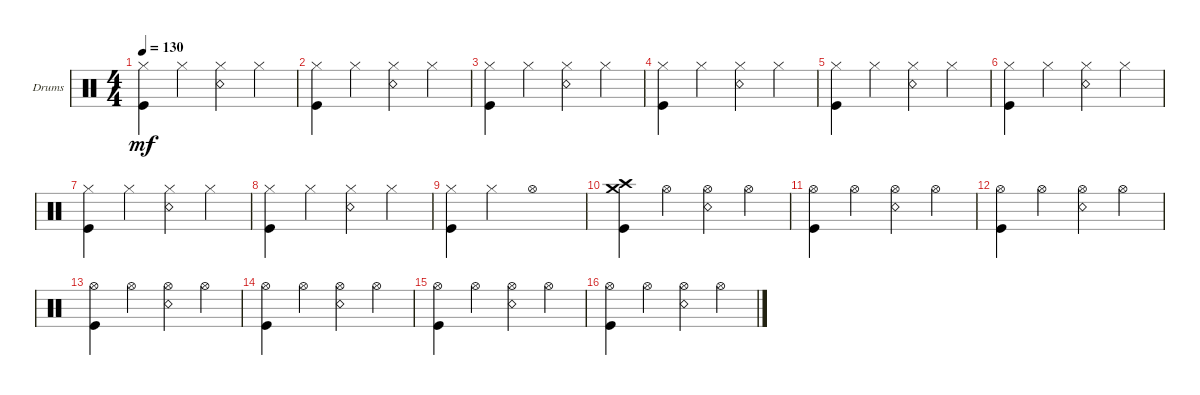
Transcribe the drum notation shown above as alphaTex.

\defaultSystemsLayout 4
\bracketExtendMode groupsimilarinstruments
\firstSystemTrackNameOrientation horizontal
\otherSystemsTrackNameOrientation horizontal
\track ("Drumkit" "Drums") {instrument percussion}
\staff {score}
\articulation defaults
\ts (4 4)
\tempo 130
\clef neutral
\ks c
("Hi-Hat (closed)" "Kick (hit)").4{dy mf} "Hi-Hat (closed)".4 ("Hi-Hat (closed)" "Snare (rim shot)").4 "Hi-Hat (closed)".4 |
("Hi-Hat (closed)" "Kick (hit)").4 "Hi-Hat (closed)".4 ("Hi-Hat (closed)" "Snare (rim shot)").4 "Hi-Hat (closed)".4 |
("Hi-Hat (closed)" "Kick (hit)").4 "Hi-Hat (closed)".4 ("Hi-Hat (closed)" "Snare (rim shot)").4 "Hi-Hat (closed)".4 |
("Hi-Hat (closed)" "Kick (hit)").4 "Hi-Hat (closed)".4 ("Hi-Hat (closed)" "Snare (rim shot)").4 "Hi-Hat (closed)".4 |
("Hi-Hat (closed)" "Kick (hit)").4 "Hi-Hat (closed)".4 ("Hi-Hat (closed)" "Snare (rim shot)").4 "Hi-Hat (closed)".4 |
("Hi-Hat (closed)" "Kick (hit)").4 "Hi-Hat (closed)".4 ("Hi-Hat (closed)" "Snare (rim shot)").4 "Hi-Hat (closed)".4 |
("Hi-Hat (closed)" "Kick (hit)").4 "Hi-Hat (closed)".4 ("Hi-Hat (closed)" "Snare (rim shot)").4 "Hi-Hat (closed)".4 |
("Hi-Hat (closed)" "Kick (hit)").4 "Hi-Hat (closed)".4 ("Hi-Hat (closed)" "Snare (rim shot)").4 "Hi-Hat (closed)".4 |
("Hi-Hat (closed)" "Kick (hit)").4 "Hi-Hat (closed)".4 "Hi-Hat (open)".1 |
("Crash medium (hit)" "Crash high (hit)" "Kick (hit)").4 "Hi-Hat (open)".4 ("Hi-Hat (open)" "Snare (rim shot)").4 "Hi-Hat (open)".4 |
("Hi-Hat (open)" "Kick (hit)").4 "Hi-Hat (open)".4 ("Hi-Hat (open)" "Snare (rim shot)").4 "Hi-Hat (open)".4 |
("Hi-Hat (open)" "Kick (hit)").4 "Hi-Hat (open)".4 ("Hi-Hat (open)" "Snare (rim shot)").4 "Hi-Hat (open)".4 |
("Hi-Hat (open)" "Kick (hit)").4 "Hi-Hat (open)".4 ("Hi-Hat (open)" "Snare (rim shot)").4 "Hi-Hat (open)".4 |
("Hi-Hat (open)" "Kick (hit)").4 "Hi-Hat (open)".4 ("Hi-Hat (open)" "Snare (rim shot)").4 "Hi-Hat (open)".4 |
("Hi-Hat (open)" "Kick (hit)").4 "Hi-Hat (open)".4 ("Hi-Hat (open)" "Snare (rim shot)").4 "Hi-Hat (open)".4 |
("Hi-Hat (open)" "Kick (hit)").4 "Hi-Hat (open)".4 ("Snare (rim shot)" "Hi-Hat (open)").4 "Hi-Hat (open)".4
